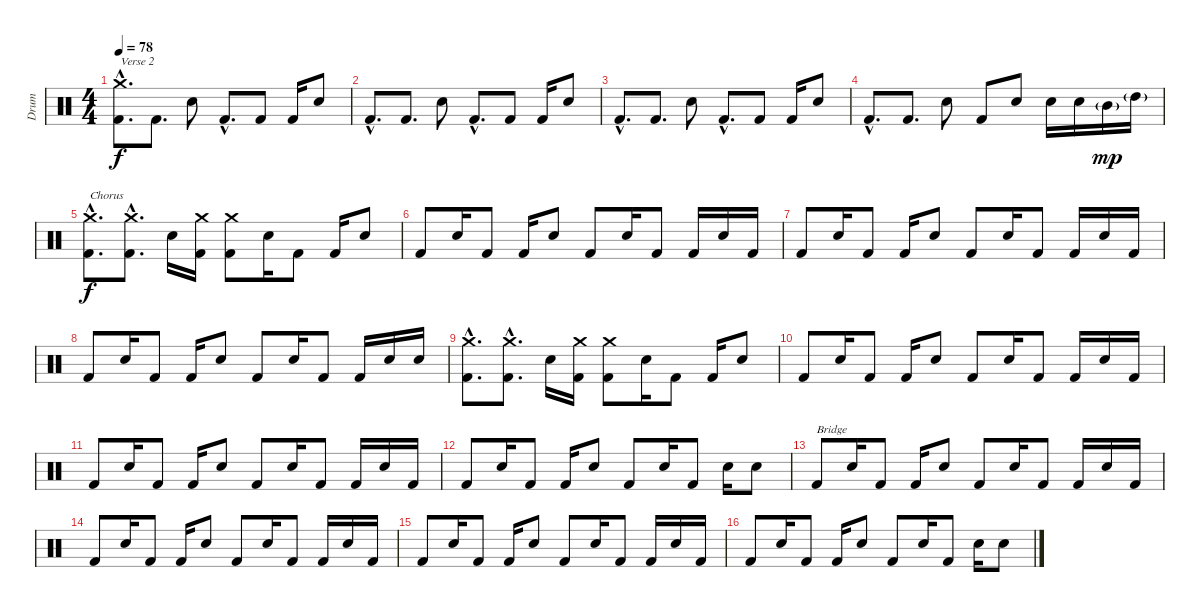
\track ("Drum" "Drum") {instrument percussion}
\staff {score}
\articulation defaults
\ts (4 4)
\tempo 78
\clef neutral
\ks c
("Crash medium (hit)"{hac} "Kick (hit) 2"{hac}).8{d txt "Verse 2" dy f} "Kick (hit) 2".8{d} "Electric Snare (hit)".8 "Kick (hit) 2"{hac}.8{d} "Kick (hit) 2".8 "Kick (hit) 2".16 "Electric Snare (hit)".8 |
"Kick (hit) 2"{hac}.8{d} "Kick (hit) 2".8{d} "Electric Snare (hit)".8 "Kick (hit) 2"{hac}.8{d} "Kick (hit) 2".8 "Kick (hit) 2".16 "Electric Snare (hit)".8 |
"Kick (hit) 2"{hac}.8{d} "Kick (hit) 2".8{d} "Electric Snare (hit)".8 "Kick (hit) 2"{hac}.8{d} "Kick (hit) 2".8 "Kick (hit) 2".16 "Electric Snare (hit)".8 |
"Kick (hit) 2"{hac}.8{d} "Kick (hit) 2".8{d} "Electric Snare (hit)".8 "Kick (hit) 2".8 "Electric Snare (hit)".8 "Electric Snare (hit)".16 "Electric Snare (hit)".16 "Mid Tom (hit)"{g}.16{dy mp} "High Tom (hit)"{g}.16 |
("Crash medium (hit)"{hac} "Kick (hit) 2"{hac}).8{d txt "Chorus" dy f} ("Crash medium (hit)"{hac} "Kick (hit) 2"{hac}).8{d} "Electric Snare (hit)".16 ("Crash medium (hit)" "Kick (hit) 2").16 ("Crash medium (hit)" "Kick (hit) 2").8 "Electric Snare (hit)".16 "Kick (hit) 2".8 "Kick (hit) 2".16 "Electric Snare (hit)".8 |
"Kick (hit) 2".8 "Electric Snare (hit)".16 "Kick (hit) 2".8 "Kick (hit) 2".16 "Electric Snare (hit)".8 "Kick (hit) 2".8 "Electric Snare (hit)".16 "Kick (hit) 2".8 "Kick (hit) 2".16 "Electric Snare (hit)".16 "Kick (hit) 2".16 |
"Kick (hit) 2".8 "Electric Snare (hit)".16 "Kick (hit) 2".8 "Kick (hit) 2".16 "Electric Snare (hit)".8 "Kick (hit) 2".8 "Electric Snare (hit)".16 "Kick (hit) 2".8 "Kick (hit) 2".16 "Electric Snare (hit)".16 "Kick (hit) 2".16 |
"Kick (hit) 2".8 "Electric Snare (hit)".16 "Kick (hit) 2".8 "Kick (hit) 2".16 "Electric Snare (hit)".8 "Kick (hit) 2".8 "Electric Snare (hit)".16 "Kick (hit) 2".8 "Kick (hit) 2".16 "Electric Snare (hit)".16 "Electric Snare (hit)".16 |
("Crash medium (hit)"{hac} "Kick (hit) 2"{hac}).8{d} ("Crash medium (hit)"{hac} "Kick (hit) 2"{hac}).8{d} "Electric Snare (hit)".16 ("Crash medium (hit)" "Kick (hit) 2").16 ("Crash medium (hit)" "Kick (hit) 2").8 "Electric Snare (hit)".16 "Kick (hit) 2".8 "Kick (hit) 2".16 "Electric Snare (hit)".8 |
"Kick (hit) 2".8 "Electric Snare (hit)".16 "Kick (hit) 2".8 "Kick (hit) 2".16 "Electric Snare (hit)".8 "Kick (hit) 2".8 "Electric Snare (hit)".16 "Kick (hit) 2".8 "Kick (hit) 2".16 "Electric Snare (hit)".16 "Kick (hit) 2".16 |
"Kick (hit) 2".8 "Electric Snare (hit)".16 "Kick (hit) 2".8 "Kick (hit) 2".16 "Electric Snare (hit)".8 "Kick (hit) 2".8 "Electric Snare (hit)".16 "Kick (hit) 2".8 "Kick (hit) 2".16 "Electric Snare (hit)".16 "Kick (hit) 2".16 |
"Kick (hit) 2".8 "Electric Snare (hit)".16 "Kick (hit) 2".8 "Kick (hit) 2".16 "Electric Snare (hit)".8 "Kick (hit) 2".8 "Electric Snare (hit)".16 "Kick (hit) 2".8 "Electric Snare (hit)".16 "Electric Snare (hit)".8 |
"Kick (hit) 2".8{txt "Bridge"} "Electric Snare (hit)".16 "Kick (hit) 2".8 "Kick (hit) 2".16 "Electric Snare (hit)".8 "Kick (hit) 2".8 "Electric Snare (hit)".16 "Kick (hit) 2".8 "Kick (hit) 2".16 "Electric Snare (hit)".16 "Kick (hit) 2".16 |
"Kick (hit) 2".8 "Electric Snare (hit)".16 "Kick (hit) 2".8 "Kick (hit) 2".16 "Electric Snare (hit)".8 "Kick (hit) 2".8 "Electric Snare (hit)".16 "Kick (hit) 2".8 "Kick (hit) 2".16 "Electric Snare (hit)".16 "Kick (hit) 2".16 |
"Kick (hit) 2".8 "Electric Snare (hit)".16 "Kick (hit) 2".8 "Kick (hit) 2".16 "Electric Snare (hit)".8 "Kick (hit) 2".8 "Electric Snare (hit)".16 "Kick (hit) 2".8 "Kick (hit) 2".16 "Electric Snare (hit)".16 "Kick (hit) 2".16 |
"Kick (hit) 2".8 "Electric Snare (hit)".16 "Kick (hit) 2".8 "Kick (hit) 2".16 "Electric Snare (hit)".8 "Kick (hit) 2".8 "Electric Snare (hit)".16 "Kick (hit) 2".8 "Electric Snare (hit)".16 "Electric Snare (hit)".8
